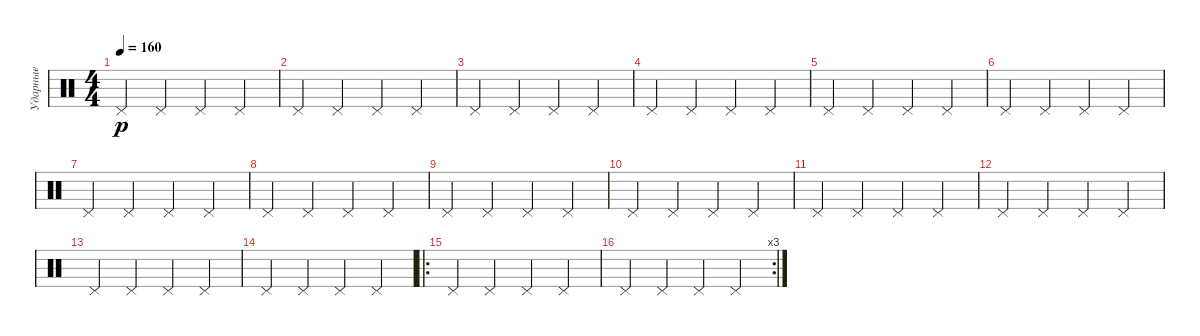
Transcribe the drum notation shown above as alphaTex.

\track ("Ударные" "Ударные") {instrument percussion}
\staff {score}
\articulation defaults
\ts (4 4)
\tempo 160
\clef neutral
\ks c "Pedal Hi-Hat (hit)".4{dy p} "Pedal Hi-Hat (hit)".4 "Pedal Hi-Hat (hit)".4 "Pedal Hi-Hat (hit)".4
|
"Pedal Hi-Hat (hit)".4 "Pedal Hi-Hat (hit)".4 "Pedal Hi-Hat (hit)".4 "Pedal Hi-Hat (hit)".4 |
"Pedal Hi-Hat (hit)".4 "Pedal Hi-Hat (hit)".4 "Pedal Hi-Hat (hit)".4 "Pedal Hi-Hat (hit)".4 |
"Pedal Hi-Hat (hit)".4 "Pedal Hi-Hat (hit)".4 "Pedal Hi-Hat (hit)".4 "Pedal Hi-Hat (hit)".4 |
"Pedal Hi-Hat (hit)".4 "Pedal Hi-Hat (hit)".4 "Pedal Hi-Hat (hit)".4 "Pedal Hi-Hat (hit)".4 |
"Pedal Hi-Hat (hit)".4 "Pedal Hi-Hat (hit)".4 "Pedal Hi-Hat (hit)".4 "Pedal Hi-Hat (hit)".4 |
"Pedal Hi-Hat (hit)".4 "Pedal Hi-Hat (hit)".4 "Pedal Hi-Hat (hit)".4 "Pedal Hi-Hat (hit)".4 |
"Pedal Hi-Hat (hit)".4 "Pedal Hi-Hat (hit)".4 "Pedal Hi-Hat (hit)".4 "Pedal Hi-Hat (hit)".4 |
"Pedal Hi-Hat (hit)".4 "Pedal Hi-Hat (hit)".4 "Pedal Hi-Hat (hit)".4 "Pedal Hi-Hat (hit)".4 |
"Pedal Hi-Hat (hit)".4 "Pedal Hi-Hat (hit)".4 "Pedal Hi-Hat (hit)".4 "Pedal Hi-Hat (hit)".4 |
"Pedal Hi-Hat (hit)".4 "Pedal Hi-Hat (hit)".4 "Pedal Hi-Hat (hit)".4 "Pedal Hi-Hat (hit)".4 |
"Pedal Hi-Hat (hit)".4 "Pedal Hi-Hat (hit)".4 "Pedal Hi-Hat (hit)".4 "Pedal Hi-Hat (hit)".4 |
"Pedal Hi-Hat (hit)".4 "Pedal Hi-Hat (hit)".4 "Pedal Hi-Hat (hit)".4 "Pedal Hi-Hat (hit)".4 |
"Pedal Hi-Hat (hit)".4 "Pedal Hi-Hat (hit)".4 "Pedal Hi-Hat (hit)".4 "Pedal Hi-Hat (hit)".4 |
\ro "Pedal Hi-Hat (hit)".4 "Pedal Hi-Hat (hit)".4 "Pedal Hi-Hat (hit)".4 "Pedal Hi-Hat (hit)".4
|
\rc 3 "Pedal Hi-Hat (hit)".4 "Pedal Hi-Hat (hit)".4 "Pedal Hi-Hat (hit)".4 "Pedal Hi-Hat (hit)".4
